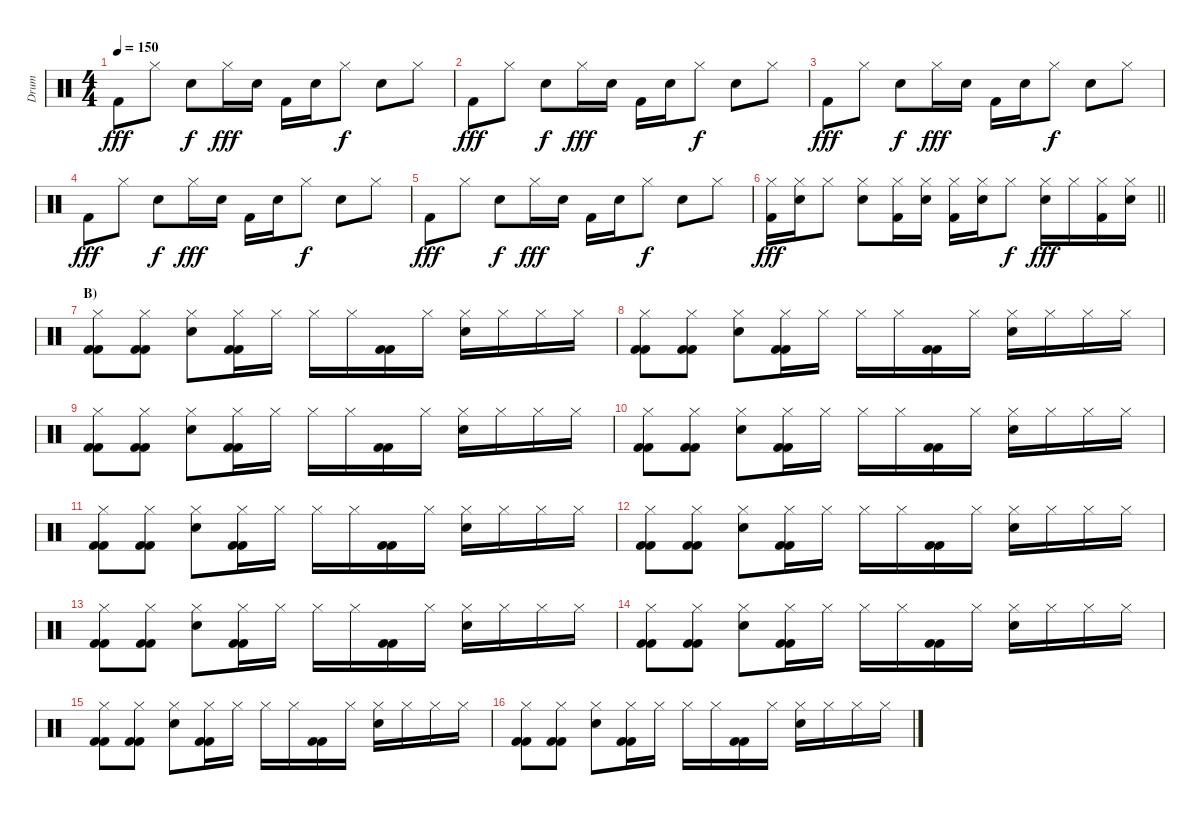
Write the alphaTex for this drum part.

\track ("Drum" "Drum") {instrument percussion}
\staff {score}
\articulation defaults
\ts (4 4)
\tempo 150
\clef neutral
\ks c "Kick (hit) 2".8{dy fff} "Hi-Hat (closed)".8 "Electric Snare (hit)".8{dy f} "Hi-Hat (closed)".16{dy fff} "Electric Snare (hit)".16 "Kick (hit) 2".16 "Electric Snare (hit)".16 "Hi-Hat (closed)".8{dy f} "Electric Snare (hit)".8 "Hi-Hat (closed)".8
|
"Kick (hit) 2".8{dy fff} "Hi-Hat (closed)".8 "Electric Snare (hit)".8{dy f} "Hi-Hat (closed)".16{dy fff} "Electric Snare (hit)".16 "Kick (hit) 2".16 "Electric Snare (hit)".16 "Hi-Hat (closed)".8{dy f} "Electric Snare (hit)".8 "Hi-Hat (closed)".8 |
"Kick (hit) 2".8{dy fff} "Hi-Hat (closed)".8 "Electric Snare (hit)".8{dy f} "Hi-Hat (closed)".16{dy fff} "Electric Snare (hit)".16 "Kick (hit) 2".16 "Electric Snare (hit)".16 "Hi-Hat (closed)".8{dy f} "Electric Snare (hit)".8 "Hi-Hat (closed)".8 |
"Kick (hit) 2".8{dy fff} "Hi-Hat (closed)".8 "Electric Snare (hit)".8{dy f} "Hi-Hat (closed)".16{dy fff} "Electric Snare (hit)".16 "Kick (hit) 2".16 "Electric Snare (hit)".16 "Hi-Hat (closed)".8{dy f} "Electric Snare (hit)".8 "Hi-Hat (closed)".8 |
"Kick (hit) 2".8{dy fff} "Hi-Hat (closed)".8 "Electric Snare (hit)".8{dy f} "Hi-Hat (closed)".16{dy fff} "Electric Snare (hit)".16 "Kick (hit) 2".16 "Electric Snare (hit)".16 "Hi-Hat (closed)".8{dy f} "Electric Snare (hit)".8 "Hi-Hat (closed)".8 |
\barLineRight lightlight
("Hi-Hat (closed)" "Kick (hit) 2").16{dy fff} ("Hi-Hat (closed)" "Electric Snare (hit)").16 "Hi-Hat (closed)".8 ("Hi-Hat (closed)" "Electric Snare (hit)").8 ("Hi-Hat (closed)" "Kick (hit) 2").16 ("Hi-Hat (closed)" "Electric Snare (hit)").16 ("Hi-Hat (closed)" "Kick (hit) 2").16 ("Hi-Hat (closed)" "Electric Snare (hit)").16 "Hi-Hat (closed)".8{dy f} ("Hi-Hat (closed)" "Electric Snare (hit)").16{dy fff} "Hi-Hat (closed)".16 ("Hi-Hat (closed)" "Kick (hit) 2").16 ("Hi-Hat (closed)" "Electric Snare (hit)").16 |
\section ("" "B)")
("Hi-Hat (closed)" "Kick (hit) 2" "Kick (hit) 2").8 ("Hi-Hat (closed)" "Kick (hit) 2" "Kick (hit) 2").8 ("Hi-Hat (closed)" "Electric Snare (hit)").8 ("Hi-Hat (closed)" "Kick (hit) 2" "Kick (hit) 2").16 "Hi-Hat (closed)".16 "Hi-Hat (closed)".16 "Hi-Hat (closed)".16 ("Kick (hit) 2" "Kick (hit) 2").16 "Hi-Hat (closed)".16 ("Hi-Hat (closed)" "Electric Snare (hit)").16 "Hi-Hat (closed)".16 "Hi-Hat (closed)".16 "Hi-Hat (closed)".16 |
("Hi-Hat (closed)" "Kick (hit) 2" "Kick (hit) 2").8 ("Hi-Hat (closed)" "Kick (hit) 2" "Kick (hit) 2").8 ("Hi-Hat (closed)" "Electric Snare (hit)").8 ("Hi-Hat (closed)" "Kick (hit) 2" "Kick (hit) 2").16 "Hi-Hat (closed)".16 "Hi-Hat (closed)".16 "Hi-Hat (closed)".16 ("Kick (hit) 2" "Kick (hit) 2").16 "Hi-Hat (closed)".16 ("Hi-Hat (closed)" "Electric Snare (hit)").16 "Hi-Hat (closed)".16 "Hi-Hat (closed)".16 "Hi-Hat (closed)".16 |
("Hi-Hat (closed)" "Kick (hit) 2" "Kick (hit) 2").8 ("Hi-Hat (closed)" "Kick (hit) 2" "Kick (hit) 2").8 ("Hi-Hat (closed)" "Electric Snare (hit)").8 ("Hi-Hat (closed)" "Kick (hit) 2" "Kick (hit) 2").16 "Hi-Hat (closed)".16 "Hi-Hat (closed)".16 "Hi-Hat (closed)".16 ("Kick (hit) 2" "Kick (hit) 2").16 "Hi-Hat (closed)".16 ("Hi-Hat (closed)" "Electric Snare (hit)").16 "Hi-Hat (closed)".16 "Hi-Hat (closed)".16 "Hi-Hat (closed)".16 |
("Hi-Hat (closed)" "Kick (hit) 2" "Kick (hit) 2").8 ("Hi-Hat (closed)" "Kick (hit) 2" "Kick (hit) 2").8 ("Hi-Hat (closed)" "Electric Snare (hit)").8 ("Hi-Hat (closed)" "Kick (hit) 2" "Kick (hit) 2").16 "Hi-Hat (closed)".16 "Hi-Hat (closed)".16 "Hi-Hat (closed)".16 ("Kick (hit) 2" "Kick (hit) 2").16 "Hi-Hat (closed)".16 ("Hi-Hat (closed)" "Electric Snare (hit)").16 "Hi-Hat (closed)".16 "Hi-Hat (closed)".16 "Hi-Hat (closed)".16 |
("Hi-Hat (closed)" "Kick (hit) 2" "Kick (hit) 2").8 ("Hi-Hat (closed)" "Kick (hit) 2" "Kick (hit) 2").8 ("Hi-Hat (closed)" "Electric Snare (hit)").8 ("Hi-Hat (closed)" "Kick (hit) 2" "Kick (hit) 2").16 "Hi-Hat (closed)".16 "Hi-Hat (closed)".16 "Hi-Hat (closed)".16 ("Kick (hit) 2" "Kick (hit) 2").16 "Hi-Hat (closed)".16 ("Hi-Hat (closed)" "Electric Snare (hit)").16 "Hi-Hat (closed)".16 "Hi-Hat (closed)".16 "Hi-Hat (closed)".16 |
("Hi-Hat (closed)" "Kick (hit) 2" "Kick (hit) 2").8 ("Hi-Hat (closed)" "Kick (hit) 2" "Kick (hit) 2").8 ("Hi-Hat (closed)" "Electric Snare (hit)").8 ("Hi-Hat (closed)" "Kick (hit) 2" "Kick (hit) 2").16 "Hi-Hat (closed)".16 "Hi-Hat (closed)".16 "Hi-Hat (closed)".16 ("Kick (hit) 2" "Kick (hit) 2").16 "Hi-Hat (closed)".16 ("Hi-Hat (closed)" "Electric Snare (hit)").16 "Hi-Hat (closed)".16 "Hi-Hat (closed)".16 "Hi-Hat (closed)".16 |
("Hi-Hat (closed)" "Kick (hit) 2" "Kick (hit) 2").8 ("Hi-Hat (closed)" "Kick (hit) 2" "Kick (hit) 2").8 ("Hi-Hat (closed)" "Electric Snare (hit)").8 ("Hi-Hat (closed)" "Kick (hit) 2" "Kick (hit) 2").16 "Hi-Hat (closed)".16 "Hi-Hat (closed)".16 "Hi-Hat (closed)".16 ("Kick (hit) 2" "Kick (hit) 2").16 "Hi-Hat (closed)".16 ("Hi-Hat (closed)" "Electric Snare (hit)").16 "Hi-Hat (closed)".16 "Hi-Hat (closed)".16 "Hi-Hat (closed)".16 |
("Hi-Hat (closed)" "Kick (hit) 2" "Kick (hit) 2").8 ("Hi-Hat (closed)" "Kick (hit) 2" "Kick (hit) 2").8 ("Hi-Hat (closed)" "Electric Snare (hit)").8 ("Hi-Hat (closed)" "Kick (hit) 2" "Kick (hit) 2").16 "Hi-Hat (closed)".16 "Hi-Hat (closed)".16 "Hi-Hat (closed)".16 ("Kick (hit) 2" "Kick (hit) 2").16 "Hi-Hat (closed)".16 ("Hi-Hat (closed)" "Electric Snare (hit)").16 "Hi-Hat (closed)".16 "Hi-Hat (closed)".16 "Hi-Hat (closed)".16 |
("Hi-Hat (closed)" "Kick (hit) 2" "Kick (hit) 2").8 ("Hi-Hat (closed)" "Kick (hit) 2" "Kick (hit) 2").8 ("Hi-Hat (closed)" "Electric Snare (hit)").8 ("Hi-Hat (closed)" "Kick (hit) 2" "Kick (hit) 2").16 "Hi-Hat (closed)".16 "Hi-Hat (closed)".16 "Hi-Hat (closed)".16 ("Kick (hit) 2" "Kick (hit) 2").16 "Hi-Hat (closed)".16 ("Hi-Hat (closed)" "Electric Snare (hit)").16 "Hi-Hat (closed)".16 "Hi-Hat (closed)".16 "Hi-Hat (closed)".16 |
("Hi-Hat (closed)" "Kick (hit) 2" "Kick (hit) 2").8 ("Hi-Hat (closed)" "Kick (hit) 2" "Kick (hit) 2").8 ("Hi-Hat (closed)" "Electric Snare (hit)").8 ("Hi-Hat (closed)" "Kick (hit) 2" "Kick (hit) 2").16 "Hi-Hat (closed)".16 "Hi-Hat (closed)".16 "Hi-Hat (closed)".16 ("Kick (hit) 2" "Kick (hit) 2").16 "Hi-Hat (closed)".16 ("Hi-Hat (closed)" "Electric Snare (hit)").16 "Hi-Hat (closed)".16 "Hi-Hat (closed)".16 "Hi-Hat (closed)".16
